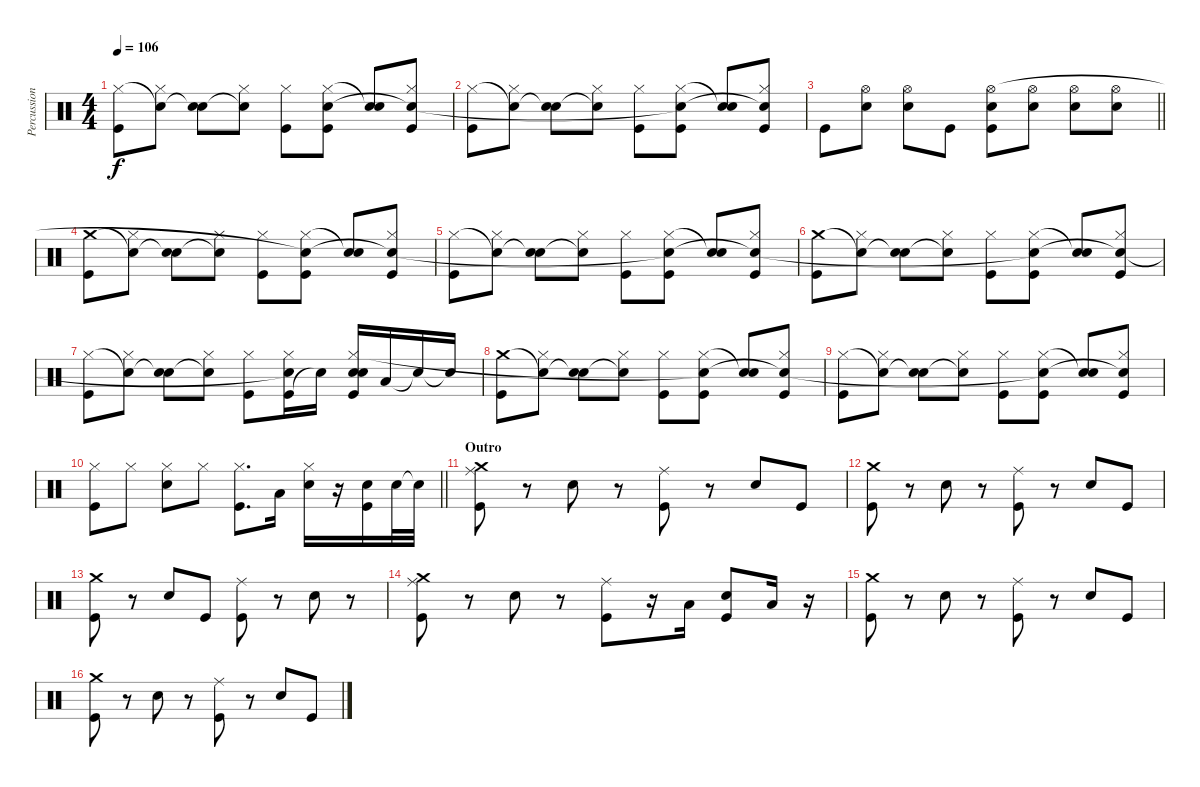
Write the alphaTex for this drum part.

\track ("Percussion" "Percussion") {instrument percussion}
\staff {score}
\articulation defaults
\ts (4 4)
\tempo 106
\clef neutral
\ks c
("Kick (hit)" "Hi-Hat (closed)").8{dy f} ("Hi-Hat (closed)" "Snare (hit)"{t}).8 ("Electric Snare (hit)" "Snare (hit)"{t}).8 ("Hi-Hat (closed)" "Snare (hit)"{t}).8 ("Kick (hit)" "Hi-Hat (closed)").8 ("Kick (hit)" "Hi-Hat (closed)" "Snare (hit)"{t}).8 ("Electric Snare (hit)" "Snare (hit)"{t}).8 ("Kick (hit)" "Hi-Hat (closed)" "Snare (hit)"{t}).8 |
("Kick (hit)" "Hi-Hat (closed)").8 ("Hi-Hat (closed)" "Snare (hit)"{t}).8 ("Electric Snare (hit)" "Snare (hit)"{t}).8 ("Hi-Hat (closed)" "Snare (hit)"{t}).8 ("Kick (hit)" "Hi-Hat (closed)").8 ("Kick (hit)" "Hi-Hat (closed)" "Snare (hit)"{t}).8 ("Electric Snare (hit)" "Snare (hit)"{t}).8 ("Kick (hit)" "Hi-Hat (closed)" "Snare (hit)"{t}).8 |
\barLineRight lightlight "Kick (hit)".8
("Electric Snare (hit)" "Hi-Hat (open)").8 ("Electric Snare (hit)" "Hi-Hat (open)").8 "Kick (hit)".8 ("Kick (hit)" "Electric Snare (hit)" "Hi-Hat (open)").8 ("Electric Snare (hit)" "Hi-Hat (open)").8 ("Electric Snare (hit)" "Hi-Hat (open)").8 ("Electric Snare (hit)" "Hi-Hat (open)").8 |
\section ("" "")
("Kick (hit)" "Crash medium (hit)").8 ("Hi-Hat (closed)" "Snare (hit)"{t}).8 ("Electric Snare (hit)" "Snare (hit)"{t}).8 ("Hi-Hat (closed)" "Snare (hit)"{t}).8 ("Kick (hit)" "Hi-Hat (closed)").8 ("Kick (hit)" "Hi-Hat (closed)" "Snare (hit)"{t}).8 ("Electric Snare (hit)" "Snare (hit)"{t}).8 ("Kick (hit)" "Hi-Hat (closed)" "Snare (hit)"{t}).8 |
("Kick (hit)" "Hi-Hat (closed)").8 ("Hi-Hat (closed)" "Snare (hit)"{t}).8 ("Electric Snare (hit)" "Snare (hit)"{t}).8 ("Hi-Hat (closed)" "Snare (hit)"{t}).8 ("Kick (hit)" "Hi-Hat (closed)").8 ("Kick (hit)" "Hi-Hat (closed)" "Snare (hit)"{t}).8 ("Electric Snare (hit)" "Snare (hit)"{t}).8 ("Kick (hit)" "Hi-Hat (closed)" "Snare (hit)"{t}).8 |
("Kick (hit)" "Crash medium (hit)").8 ("Hi-Hat (closed)" "Snare (hit)"{t}).8 ("Electric Snare (hit)" "Snare (hit)"{t}).8 ("Hi-Hat (closed)" "Snare (hit)"{t}).8 ("Kick (hit)" "Hi-Hat (closed)").8 ("Kick (hit)" "Hi-Hat (closed)" "Snare (hit)"{t}).8 ("Electric Snare (hit)" "Snare (hit)"{t}).8 ("Kick (hit)" "Hi-Hat (closed)" "Snare (hit)"{t}).8 |
("Kick (hit)" "Hi-Hat (closed)").8 ("Hi-Hat (closed)" "Snare (hit)"{t}).8 ("Electric Snare (hit)" "Snare (hit)"{t}).8 ("Hi-Hat (closed)" "Snare (hit)"{t}).8 ("Kick (hit)" "Hi-Hat (closed)").8 ("Kick (hit)" "Hi-Hat (closed)" "Snare (hit)"{t}).16 "Snare (hit)"{t}.16 ("Kick (hit)" "Electric Snare (hit)" "Hi-Hat (closed)" "Snare (hit)").16 "Low Tom (hit)".16 "Snare (hit)"{t}.16 "Snare (hit)"{t}.16 |
("Kick (hit)" "Crash medium (hit)").8 ("Hi-Hat (closed)" "Snare (hit)"{t}).8 ("Electric Snare (hit)" "Snare (hit)"{t}).8 ("Hi-Hat (closed)" "Snare (hit)"{t}).8 ("Kick (hit)" "Hi-Hat (closed)").8 ("Kick (hit)" "Hi-Hat (closed)" "Snare (hit)"{t}).8 ("Electric Snare (hit)" "Snare (hit)"{t}).8 ("Kick (hit)" "Hi-Hat (closed)" "Snare (hit)"{t}).8 |
("Kick (hit)" "Hi-Hat (closed)").8 ("Hi-Hat (closed)" "Snare (hit)"{t}).8 ("Electric Snare (hit)" "Snare (hit)"{t}).8 ("Hi-Hat (closed)" "Snare (hit)"{t}).8 ("Kick (hit)" "Hi-Hat (closed)").8 ("Kick (hit)" "Hi-Hat (closed)" "Snare (hit)"{t}).8 ("Electric Snare (hit)" "Snare (hit)"{t}).8 ("Kick (hit)" "Hi-Hat (closed)" "Snare (hit)"{t}).8 |
\barLineRight lightlight
("Kick (hit)" "Hi-Hat (closed)").8 "Hi-Hat (closed)".8 ("Electric Snare (hit)" "Hi-Hat (closed)").8 "Hi-Hat (closed)".8 ("Kick (hit)" "Hi-Hat (closed)").8{d} "Low Tom (hit)".16 ("Electric Snare (hit)" "Hi-Hat (closed)").16 r.16 ("Kick (hit)" "Electric Snare (hit)").16 "Electric Snare (hit)".32 "Snare (hit)"{t}.32 |
\section ("" "Outro")
("Kick (hit)" "Ride (middle)" "Crash medium (hit)").8 r.8 "Electric Snare (hit)".8 r.8 ("Kick (hit)" "Ride (middle)").8 r.8 "Electric Snare (hit)".8 "Kick (hit)".8 |
("Kick (hit)" "Crash medium (hit)").8 r.8 "Electric Snare (hit)".8 r.8 ("Kick (hit)" "Ride (middle)").8 r.8 "Electric Snare (hit)".8 "Kick (hit)".8 |
("Kick (hit)" "Crash medium (hit)").8 r.8 "Electric Snare (hit)".8 "Kick (hit)".8 ("Kick (hit)" "Ride (middle)").8 r.8 "Electric Snare (hit)".8 r.8 |
("Kick (hit)" "Ride (middle)" "Crash medium (hit)").8 r.8 "Electric Snare (hit)".8 r.8 ("Kick (hit)" "Ride (middle)").8 r.16 "Low Tom (hit)".16 ("Kick (hit)" "Electric Snare (hit)").8 "Low Tom (hit)".16 r.16 |
("Kick (hit)" "Crash medium (hit)").8 r.8 "Electric Snare (hit)".8 r.8 ("Kick (hit)" "Ride (middle)").8 r.8 "Electric Snare (hit)".8 "Kick (hit)".8 |
("Kick (hit)" "Crash medium (hit)").8 r.8 "Electric Snare (hit)".8 r.8 ("Kick (hit)" "Ride (middle)").8 r.8 "Electric Snare (hit)".8 "Kick (hit)".8
